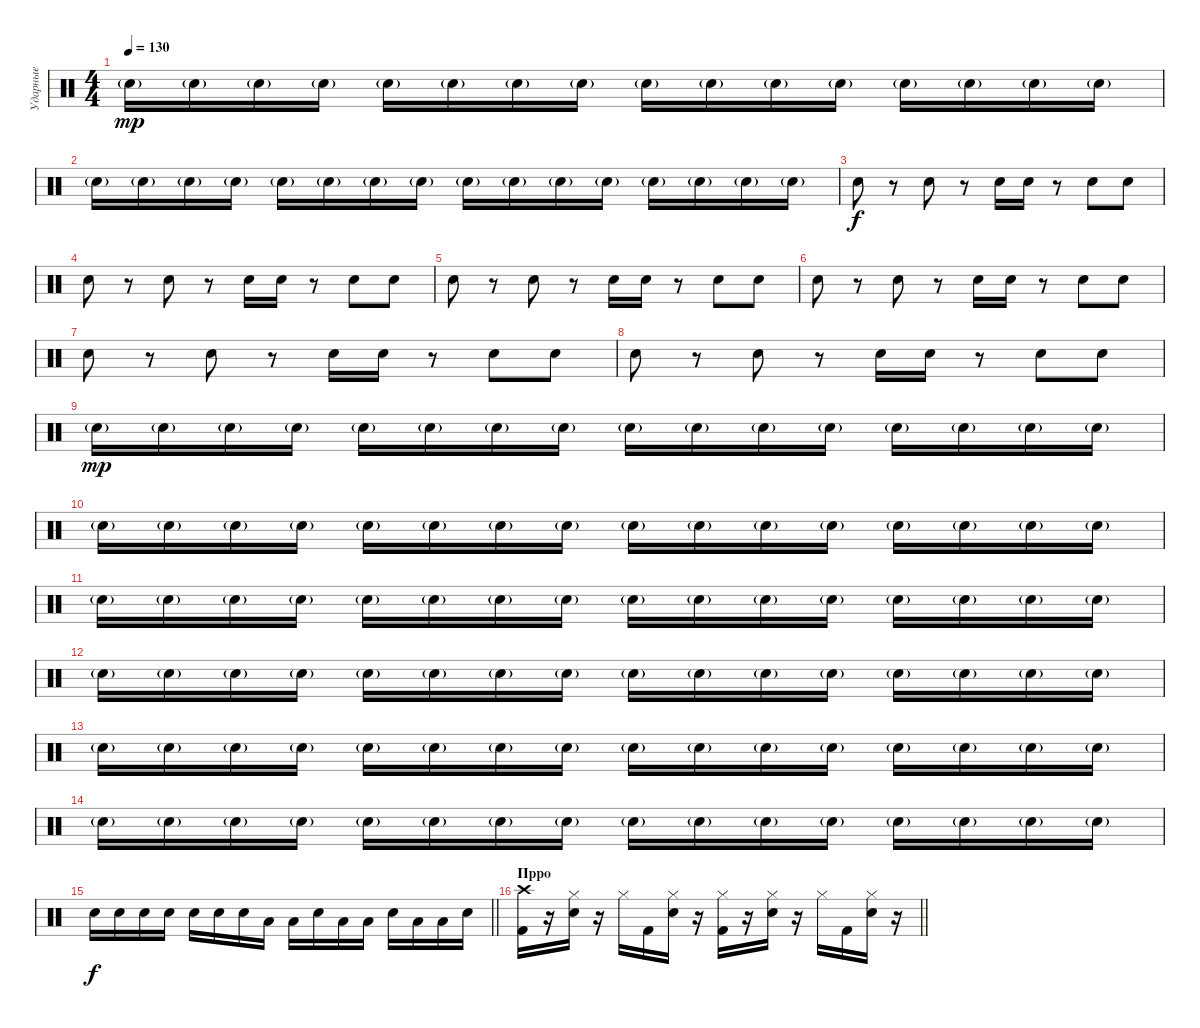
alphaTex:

\track ("Ударные" "Ударные") {instrument percussion}
\staff {score}
\articulation defaults
\ts (4 4)
\tempo 130
\clef neutral
\ks c "Electric Snare (hit)"{g}.16{dy mp} "Electric Snare (hit)"{g}.16 "Electric Snare (hit)"{g}.16 "Electric Snare (hit)"{g}.16 "Electric Snare (hit)"{g}.16 "Electric Snare (hit)"{g}.16 "Electric Snare (hit)"{g}.16 "Electric Snare (hit)"{g}.16 "Electric Snare (hit)"{g}.16 "Electric Snare (hit)"{g}.16 "Electric Snare (hit)"{g}.16 "Electric Snare (hit)"{g}.16 "Electric Snare (hit)"{g}.16 "Electric Snare (hit)"{g}.16 "Electric Snare (hit)"{g}.16 "Electric Snare (hit)"{g}.16
|
"Electric Snare (hit)"{g}.16 "Electric Snare (hit)"{g}.16 "Electric Snare (hit)"{g}.16 "Electric Snare (hit)"{g}.16 "Electric Snare (hit)"{g}.16 "Electric Snare (hit)"{g}.16 "Electric Snare (hit)"{g}.16 "Electric Snare (hit)"{g}.16 "Electric Snare (hit)"{g}.16 "Electric Snare (hit)"{g}.16 "Electric Snare (hit)"{g}.16 "Electric Snare (hit)"{g}.16 "Electric Snare (hit)"{g}.16 "Electric Snare (hit)"{g}.16 "Electric Snare (hit)"{g}.16 "Electric Snare (hit)"{g}.16 |
"Electric Snare (hit)".8{dy f} r.8 "Electric Snare (hit)".8 r.8 "Electric Snare (hit)".16 "Electric Snare (hit)".16 r.8 "Electric Snare (hit)".8 "Electric Snare (hit)".8 |
"Electric Snare (hit)".8 r.8 "Electric Snare (hit)".8 r.8 "Electric Snare (hit)".16 "Electric Snare (hit)".16 r.8 "Electric Snare (hit)".8 "Electric Snare (hit)".8 |
"Electric Snare (hit)".8 r.8 "Electric Snare (hit)".8 r.8 "Electric Snare (hit)".16 "Electric Snare (hit)".16 r.8 "Electric Snare (hit)".8 "Electric Snare (hit)".8 |
"Electric Snare (hit)".8 r.8 "Electric Snare (hit)".8 r.8 "Electric Snare (hit)".16 "Electric Snare (hit)".16 r.8 "Electric Snare (hit)".8 "Electric Snare (hit)".8 |
"Electric Snare (hit)".8 r.8 "Electric Snare (hit)".8 r.8 "Electric Snare (hit)".16 "Electric Snare (hit)".16 r.8 "Electric Snare (hit)".8 "Electric Snare (hit)".8 |
"Electric Snare (hit)".8 r.8 "Electric Snare (hit)".8 r.8 "Electric Snare (hit)".16 "Electric Snare (hit)".16 r.8 "Electric Snare (hit)".8 "Electric Snare (hit)".8 |
"Electric Snare (hit)"{g}.16{dy mp} "Electric Snare (hit)"{g}.16 "Electric Snare (hit)"{g}.16 "Electric Snare (hit)"{g}.16 "Electric Snare (hit)"{g}.16 "Electric Snare (hit)"{g}.16 "Electric Snare (hit)"{g}.16 "Electric Snare (hit)"{g}.16 "Electric Snare (hit)"{g}.16 "Electric Snare (hit)"{g}.16 "Electric Snare (hit)"{g}.16 "Electric Snare (hit)"{g}.16 "Electric Snare (hit)"{g}.16 "Electric Snare (hit)"{g}.16 "Electric Snare (hit)"{g}.16 "Electric Snare (hit)"{g}.16 |
"Electric Snare (hit)"{g}.16 "Electric Snare (hit)"{g}.16 "Electric Snare (hit)"{g}.16 "Electric Snare (hit)"{g}.16 "Electric Snare (hit)"{g}.16 "Electric Snare (hit)"{g}.16 "Electric Snare (hit)"{g}.16 "Electric Snare (hit)"{g}.16 "Electric Snare (hit)"{g}.16 "Electric Snare (hit)"{g}.16 "Electric Snare (hit)"{g}.16 "Electric Snare (hit)"{g}.16 "Electric Snare (hit)"{g}.16 "Electric Snare (hit)"{g}.16 "Electric Snare (hit)"{g}.16 "Electric Snare (hit)"{g}.16 |
"Electric Snare (hit)"{g}.16 "Electric Snare (hit)"{g}.16 "Electric Snare (hit)"{g}.16 "Electric Snare (hit)"{g}.16 "Electric Snare (hit)"{g}.16 "Electric Snare (hit)"{g}.16 "Electric Snare (hit)"{g}.16 "Electric Snare (hit)"{g}.16 "Electric Snare (hit)"{g}.16 "Electric Snare (hit)"{g}.16 "Electric Snare (hit)"{g}.16 "Electric Snare (hit)"{g}.16 "Electric Snare (hit)"{g}.16 "Electric Snare (hit)"{g}.16 "Electric Snare (hit)"{g}.16 "Electric Snare (hit)"{g}.16 |
"Electric Snare (hit)"{g}.16 "Electric Snare (hit)"{g}.16 "Electric Snare (hit)"{g}.16 "Electric Snare (hit)"{g}.16 "Electric Snare (hit)"{g}.16 "Electric Snare (hit)"{g}.16 "Electric Snare (hit)"{g}.16 "Electric Snare (hit)"{g}.16 "Electric Snare (hit)"{g}.16 "Electric Snare (hit)"{g}.16 "Electric Snare (hit)"{g}.16 "Electric Snare (hit)"{g}.16 "Electric Snare (hit)"{g}.16 "Electric Snare (hit)"{g}.16 "Electric Snare (hit)"{g}.16 "Electric Snare (hit)"{g}.16 |
"Electric Snare (hit)"{g}.16 "Electric Snare (hit)"{g}.16 "Electric Snare (hit)"{g}.16 "Electric Snare (hit)"{g}.16 "Electric Snare (hit)"{g}.16 "Electric Snare (hit)"{g}.16 "Electric Snare (hit)"{g}.16 "Electric Snare (hit)"{g}.16 "Electric Snare (hit)"{g}.16 "Electric Snare (hit)"{g}.16 "Electric Snare (hit)"{g}.16 "Electric Snare (hit)"{g}.16 "Electric Snare (hit)"{g}.16 "Electric Snare (hit)"{g}.16 "Electric Snare (hit)"{g}.16 "Electric Snare (hit)"{g}.16 |
"Electric Snare (hit)"{g}.16 "Electric Snare (hit)"{g}.16 "Electric Snare (hit)"{g}.16 "Electric Snare (hit)"{g}.16 "Electric Snare (hit)"{g}.16 "Electric Snare (hit)"{g}.16 "Electric Snare (hit)"{g}.16 "Electric Snare (hit)"{g}.16 "Electric Snare (hit)"{g}.16 "Electric Snare (hit)"{g}.16 "Electric Snare (hit)"{g}.16 "Electric Snare (hit)"{g}.16 "Electric Snare (hit)"{g}.16 "Electric Snare (hit)"{g}.16 "Electric Snare (hit)"{g}.16 "Electric Snare (hit)"{g}.16 |
\barLineRight lightlight "Electric Snare (hit)".16{dy f} "Electric Snare (hit)".16 "Electric Snare (hit)".16 "Electric Snare (hit)".16 "Electric Snare (hit)".16 "Electric Snare (hit)".16 "Electric Snare (hit)".16 "Low Tom (hit)".16 "Low Tom (hit)".16 "Electric Snare (hit)".16 "Low Tom (hit)".16 "Low Tom (hit)".16 "Electric Snare (hit)".16 "Low Tom (hit)".16 "Low Tom (hit)".16 "Electric Snare (hit)".16
|
\section ("" "Прро")
\barLineRight lightlight
("Kick (hit) 2" "Crash high (hit)").16 r.16 ("Electric Snare (hit)" "Hi-Hat (closed)").16 r.16 "Hi-Hat (closed)".16 "Kick (hit) 2".16 ("Electric Snare (hit)" "Hi-Hat (closed)").16 r.16 ("Kick (hit) 2" "Hi-Hat (closed)").16 r.16 ("Electric Snare (hit)" "Hi-Hat (closed)").16 r.16 "Hi-Hat (closed)".16 "Kick (hit) 2".16 ("Electric Snare (hit)" "Hi-Hat (closed)").16 r.16
